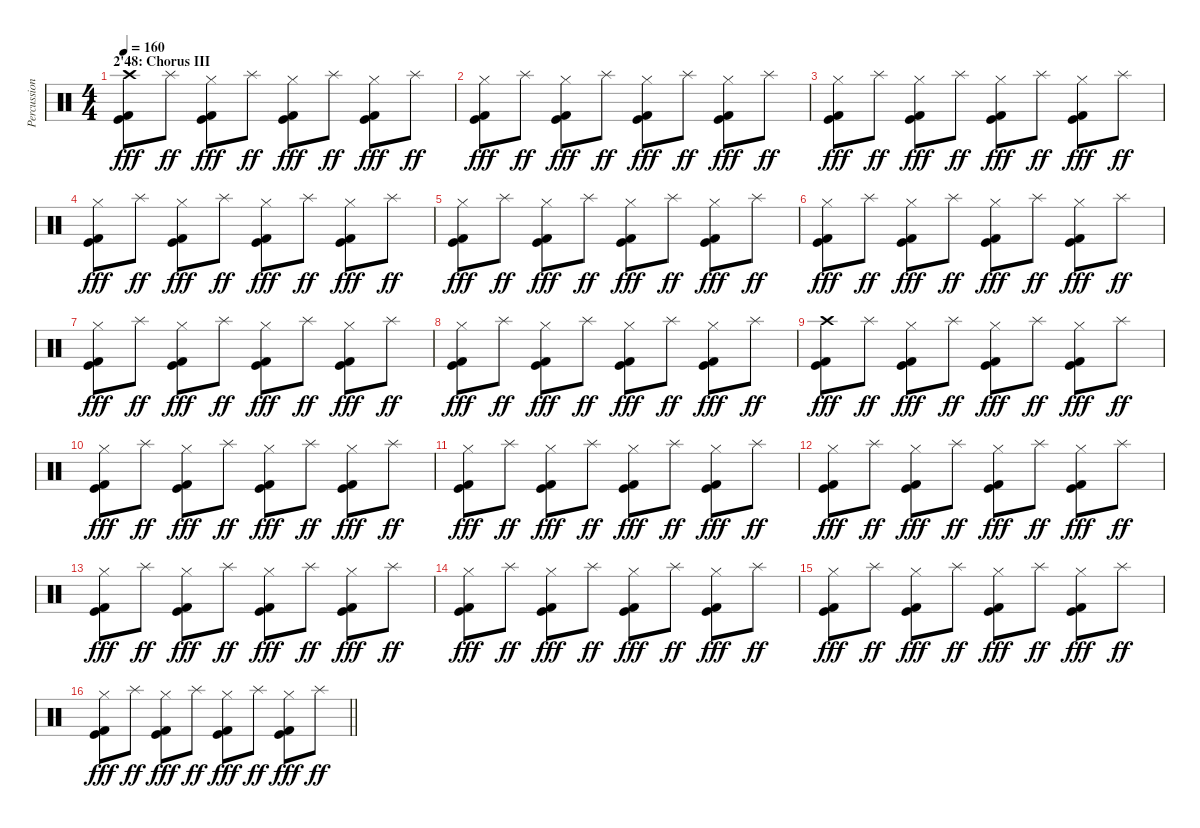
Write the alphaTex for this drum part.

\track ("Percussions" "Percussion") {instrument percussion}
\staff {score}
\articulation defaults
\ts (4 4)
\section ("" "2'48: Chorus III")
\tempo 160
\clef neutral
\ks c
("Crash high (hit)" "Kick (hit) 2" "Kick (hit)").8{dy fff} "Splash (hit)".8{dy ff} ("Hi-Hat (closed)" "Kick (hit) 2" "Kick (hit)").8{dy fff} "Splash (hit)".8{dy ff} ("Hi-Hat (closed)" "Kick (hit) 2" "Kick (hit)").8{dy fff} "Splash (hit)".8{dy ff} ("Hi-Hat (closed)" "Kick (hit) 2" "Kick (hit)").8{dy fff} "Splash (hit)".8{dy ff} |
("Hi-Hat (closed)" "Kick (hit) 2" "Kick (hit)").8{dy fff} "Splash (hit)".8{dy ff} ("Hi-Hat (closed)" "Kick (hit) 2" "Kick (hit)").8{dy fff} "Splash (hit)".8{dy ff} ("Hi-Hat (closed)" "Kick (hit) 2" "Kick (hit)").8{dy fff} "Splash (hit)".8{dy ff} ("Hi-Hat (closed)" "Kick (hit) 2" "Kick (hit)").8{dy fff} "Splash (hit)".8{dy ff} |
("Hi-Hat (closed)" "Kick (hit) 2" "Kick (hit)").8{dy fff} "Splash (hit)".8{dy ff} ("Hi-Hat (closed)" "Kick (hit) 2" "Kick (hit)").8{dy fff} "Splash (hit)".8{dy ff} ("Hi-Hat (closed)" "Kick (hit) 2" "Kick (hit)").8{dy fff} "Splash (hit)".8{dy ff} ("Hi-Hat (closed)" "Kick (hit) 2" "Kick (hit)").8{dy fff} "Splash (hit)".8{dy ff} |
("Hi-Hat (closed)" "Kick (hit) 2" "Kick (hit)").8{dy fff} "Splash (hit)".8{dy ff} ("Hi-Hat (closed)" "Kick (hit) 2" "Kick (hit)").8{dy fff} "Splash (hit)".8{dy ff} ("Hi-Hat (closed)" "Kick (hit) 2" "Kick (hit)").8{dy fff} "Splash (hit)".8{dy ff} ("Hi-Hat (closed)" "Kick (hit) 2" "Kick (hit)").8{dy fff} "Splash (hit)".8{dy ff} |
("Hi-Hat (closed)" "Kick (hit) 2" "Kick (hit)").8{dy fff} "Splash (hit)".8{dy ff} ("Hi-Hat (closed)" "Kick (hit) 2" "Kick (hit)").8{dy fff} "Splash (hit)".8{dy ff} ("Hi-Hat (closed)" "Kick (hit) 2" "Kick (hit)").8{dy fff} "Splash (hit)".8{dy ff} ("Hi-Hat (closed)" "Kick (hit) 2" "Kick (hit)").8{dy fff} "Splash (hit)".8{dy ff} |
("Hi-Hat (closed)" "Kick (hit) 2" "Kick (hit)").8{dy fff} "Splash (hit)".8{dy ff} ("Hi-Hat (closed)" "Kick (hit) 2" "Kick (hit)").8{dy fff} "Splash (hit)".8{dy ff} ("Hi-Hat (closed)" "Kick (hit) 2" "Kick (hit)").8{dy fff} "Splash (hit)".8{dy ff} ("Hi-Hat (closed)" "Kick (hit) 2" "Kick (hit)").8{dy fff} "Splash (hit)".8{dy ff} |
("Hi-Hat (closed)" "Kick (hit) 2" "Kick (hit)").8{dy fff} "Splash (hit)".8{dy ff} ("Hi-Hat (closed)" "Kick (hit) 2" "Kick (hit)").8{dy fff} "Splash (hit)".8{dy ff} ("Hi-Hat (closed)" "Kick (hit) 2" "Kick (hit)").8{dy fff} "Splash (hit)".8{dy ff} ("Hi-Hat (closed)" "Kick (hit) 2" "Kick (hit)").8{dy fff} "Splash (hit)".8{dy ff} |
("Hi-Hat (closed)" "Kick (hit) 2" "Kick (hit)").8{dy fff} "Splash (hit)".8{dy ff} ("Hi-Hat (closed)" "Kick (hit) 2" "Kick (hit)").8{dy fff} "Splash (hit)".8{dy ff} ("Hi-Hat (closed)" "Kick (hit) 2" "Kick (hit)").8{dy fff} "Splash (hit)".8{dy ff} ("Hi-Hat (closed)" "Kick (hit) 2" "Kick (hit)").8{dy fff} "Splash (hit)".8{dy ff} |
("Crash high (hit)" "Kick (hit) 2" "Kick (hit)").8{dy fff} "Splash (hit)".8{dy ff} ("Hi-Hat (closed)" "Kick (hit) 2" "Kick (hit)").8{dy fff} "Splash (hit)".8{dy ff} ("Hi-Hat (closed)" "Kick (hit) 2" "Kick (hit)").8{dy fff} "Splash (hit)".8{dy ff} ("Hi-Hat (closed)" "Kick (hit) 2" "Kick (hit)").8{dy fff} "Splash (hit)".8{dy ff} |
("Hi-Hat (closed)" "Kick (hit) 2" "Kick (hit)").8{dy fff} "Splash (hit)".8{dy ff} ("Hi-Hat (closed)" "Kick (hit) 2" "Kick (hit)").8{dy fff} "Splash (hit)".8{dy ff} ("Hi-Hat (closed)" "Kick (hit) 2" "Kick (hit)").8{dy fff} "Splash (hit)".8{dy ff} ("Hi-Hat (closed)" "Kick (hit) 2" "Kick (hit)").8{dy fff} "Splash (hit)".8{dy ff} |
("Hi-Hat (closed)" "Kick (hit) 2" "Kick (hit)").8{dy fff} "Splash (hit)".8{dy ff} ("Hi-Hat (closed)" "Kick (hit) 2" "Kick (hit)").8{dy fff} "Splash (hit)".8{dy ff} ("Hi-Hat (closed)" "Kick (hit) 2" "Kick (hit)").8{dy fff} "Splash (hit)".8{dy ff} ("Hi-Hat (closed)" "Kick (hit) 2" "Kick (hit)").8{dy fff} "Splash (hit)".8{dy ff} |
("Hi-Hat (closed)" "Kick (hit) 2" "Kick (hit)").8{dy fff} "Splash (hit)".8{dy ff} ("Hi-Hat (closed)" "Kick (hit) 2" "Kick (hit)").8{dy fff} "Splash (hit)".8{dy ff} ("Hi-Hat (closed)" "Kick (hit) 2" "Kick (hit)").8{dy fff} "Splash (hit)".8{dy ff} ("Hi-Hat (closed)" "Kick (hit) 2" "Kick (hit)").8{dy fff} "Splash (hit)".8{dy ff} |
("Hi-Hat (closed)" "Kick (hit) 2" "Kick (hit)").8{dy fff} "Splash (hit)".8{dy ff} ("Hi-Hat (closed)" "Kick (hit) 2" "Kick (hit)").8{dy fff} "Splash (hit)".8{dy ff} ("Hi-Hat (closed)" "Kick (hit) 2" "Kick (hit)").8{dy fff} "Splash (hit)".8{dy ff} ("Hi-Hat (closed)" "Kick (hit) 2" "Kick (hit)").8{dy fff} "Splash (hit)".8{dy ff} |
("Hi-Hat (closed)" "Kick (hit) 2" "Kick (hit)").8{dy fff} "Splash (hit)".8{dy ff} ("Hi-Hat (closed)" "Kick (hit) 2" "Kick (hit)").8{dy fff} "Splash (hit)".8{dy ff} ("Hi-Hat (closed)" "Kick (hit) 2" "Kick (hit)").8{dy fff} "Splash (hit)".8{dy ff} ("Hi-Hat (closed)" "Kick (hit) 2" "Kick (hit)").8{dy fff} "Splash (hit)".8{dy ff} |
("Hi-Hat (closed)" "Kick (hit) 2" "Kick (hit)").8{dy fff} "Splash (hit)".8{dy ff} ("Hi-Hat (closed)" "Kick (hit) 2" "Kick (hit)").8{dy fff} "Splash (hit)".8{dy ff} ("Hi-Hat (closed)" "Kick (hit) 2" "Kick (hit)").8{dy fff} "Splash (hit)".8{dy ff} ("Hi-Hat (closed)" "Kick (hit) 2" "Kick (hit)").8{dy fff} "Splash (hit)".8{dy ff} |
\barLineRight lightlight
("Hi-Hat (closed)" "Kick (hit) 2" "Kick (hit)").8{dy fff} "Splash (hit)".8{dy ff} ("Hi-Hat (closed)" "Kick (hit) 2" "Kick (hit)").8{dy fff} "Splash (hit)".8{dy ff} ("Hi-Hat (closed)" "Kick (hit) 2" "Kick (hit)").8{dy fff} "Splash (hit)".8{dy ff} ("Hi-Hat (closed)" "Kick (hit) 2" "Kick (hit)").8{dy fff} "Splash (hit)".8{dy ff}
